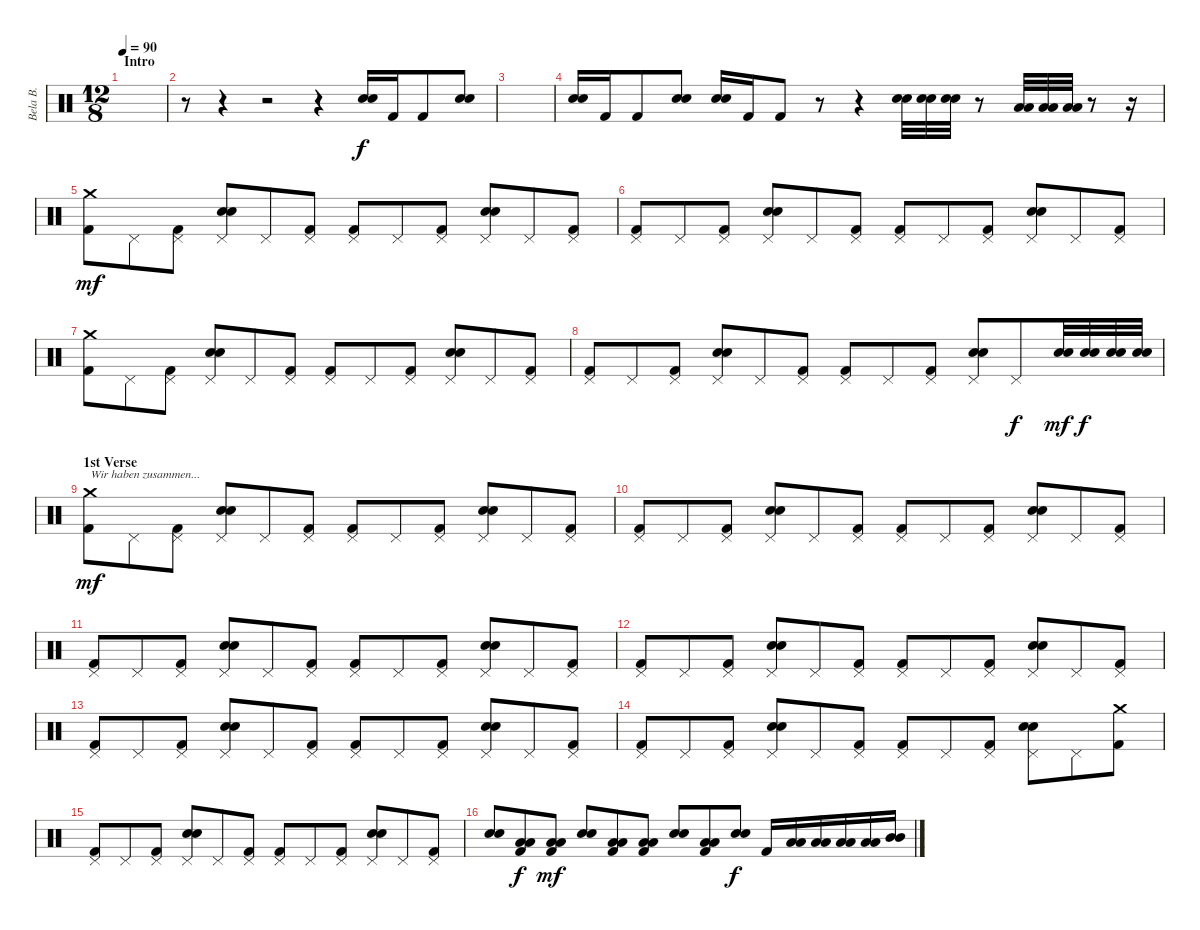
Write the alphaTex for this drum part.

\track ("Bela B." "Bela B.") {instrument percussion}
\staff {score}
\articulation defaults
\ts (12 8)
\section ("" "Intro")
\tempo 90
\clef neutral
\ks c
|
r.8 r.4 r.2 r.4 ("Electric Snare (hit)" "Snare (hit) 2").16 "Kick (hit) 2".16 "Kick (hit) 2".8 ("Electric Snare (hit)" "Snare (hit) 2").8 |
|
("Electric Snare (hit)" "Snare (hit) 2").16 "Kick (hit) 2".16 "Kick (hit) 2".8 ("Electric Snare (hit)" "Snare (hit) 2").8 ("Electric Snare (hit)" "Snare (hit) 2").16 "Kick (hit) 2".16 "Kick (hit) 2".8 r.8 r.4 ("Electric Snare (hit)" "Snare (hit) 2").32 ("Electric Snare (hit)" "Snare (hit) 2").32 ("Electric Snare (hit)" "Snare (hit) 2").32 r.8 ("Low Tom (hit)" "Low Tom (hit)").32 ("Low Tom (hit)" "Low Tom (hit)").32 ("Low Tom (hit)" "Low Tom (hit)").32 r.8 r.16 |
("Crash medium (hit)" "Kick (hit) 2").8{dy mf} "Pedal Hi-Hat (hit)".8 ("Pedal Hi-Hat (hit)" "Kick (hit) 2").8 ("Pedal Hi-Hat (hit)" "Electric Snare (hit)" "Snare (hit) 2").8 "Pedal Hi-Hat (hit)".8 ("Pedal Hi-Hat (hit)" "Kick (hit) 2").8 ("Pedal Hi-Hat (hit)" "Kick (hit) 2").8 "Pedal Hi-Hat (hit)".8 ("Pedal Hi-Hat (hit)" "Kick (hit) 2").8 ("Pedal Hi-Hat (hit)" "Electric Snare (hit)" "Snare (hit) 2").8 "Pedal Hi-Hat (hit)".8 ("Pedal Hi-Hat (hit)" "Kick (hit) 2").8 |
("Pedal Hi-Hat (hit)" "Kick (hit) 2").8 "Pedal Hi-Hat (hit)".8 ("Pedal Hi-Hat (hit)" "Kick (hit) 2").8 ("Pedal Hi-Hat (hit)" "Electric Snare (hit)" "Snare (hit) 2").8 "Pedal Hi-Hat (hit)".8 ("Pedal Hi-Hat (hit)" "Kick (hit) 2").8 ("Pedal Hi-Hat (hit)" "Kick (hit) 2").8 "Pedal Hi-Hat (hit)".8 ("Pedal Hi-Hat (hit)" "Kick (hit) 2").8 ("Pedal Hi-Hat (hit)" "Electric Snare (hit)" "Snare (hit) 2").8 "Pedal Hi-Hat (hit)".8 ("Pedal Hi-Hat (hit)" "Kick (hit) 2").8 |
("Crash medium (hit)" "Kick (hit) 2").8 "Pedal Hi-Hat (hit)".8 ("Pedal Hi-Hat (hit)" "Kick (hit) 2").8 ("Pedal Hi-Hat (hit)" "Electric Snare (hit)" "Snare (hit) 2").8 "Pedal Hi-Hat (hit)".8 ("Pedal Hi-Hat (hit)" "Kick (hit) 2").8 ("Pedal Hi-Hat (hit)" "Kick (hit) 2").8 "Pedal Hi-Hat (hit)".8 ("Pedal Hi-Hat (hit)" "Kick (hit) 2").8 ("Pedal Hi-Hat (hit)" "Electric Snare (hit)" "Snare (hit) 2").8 "Pedal Hi-Hat (hit)".8 ("Pedal Hi-Hat (hit)" "Kick (hit) 2").8 |
("Pedal Hi-Hat (hit)" "Kick (hit) 2").8 "Pedal Hi-Hat (hit)".8 ("Pedal Hi-Hat (hit)" "Kick (hit) 2").8 ("Pedal Hi-Hat (hit)" "Electric Snare (hit)" "Snare (hit) 2").8 "Pedal Hi-Hat (hit)".8 ("Pedal Hi-Hat (hit)" "Kick (hit) 2").8 ("Pedal Hi-Hat (hit)" "Kick (hit) 2").8 "Pedal Hi-Hat (hit)".8 ("Pedal Hi-Hat (hit)" "Kick (hit) 2").8 ("Pedal Hi-Hat (hit)" "Electric Snare (hit)" "Snare (hit) 2").8 "Pedal Hi-Hat (hit)".8{dy f} ("Electric Snare (hit)" "Snare (hit) 2").32{dy mf} ("Electric Snare (hit)" "Snare (hit) 2").32{dy f} ("Electric Snare (hit)" "Snare (hit) 2").32 ("Electric Snare (hit)" "Snare (hit) 2").32 |
\section ("" "1st Verse")
("Crash medium (hit)" "Kick (hit) 2").8{txt "Wir haben zusammen..." dy mf} "Pedal Hi-Hat (hit)".8 ("Pedal Hi-Hat (hit)" "Kick (hit) 2").8 ("Pedal Hi-Hat (hit)" "Electric Snare (hit)" "Snare (hit) 2").8 "Pedal Hi-Hat (hit)".8 ("Pedal Hi-Hat (hit)" "Kick (hit) 2").8 ("Pedal Hi-Hat (hit)" "Kick (hit) 2").8 "Pedal Hi-Hat (hit)".8 ("Pedal Hi-Hat (hit)" "Kick (hit) 2").8 ("Pedal Hi-Hat (hit)" "Electric Snare (hit)" "Snare (hit) 2").8 "Pedal Hi-Hat (hit)".8 ("Pedal Hi-Hat (hit)" "Kick (hit) 2").8 |
("Pedal Hi-Hat (hit)" "Kick (hit) 2").8 "Pedal Hi-Hat (hit)".8 ("Pedal Hi-Hat (hit)" "Kick (hit) 2").8 ("Pedal Hi-Hat (hit)" "Electric Snare (hit)" "Snare (hit) 2").8 "Pedal Hi-Hat (hit)".8 ("Pedal Hi-Hat (hit)" "Kick (hit) 2").8 ("Pedal Hi-Hat (hit)" "Kick (hit) 2").8 "Pedal Hi-Hat (hit)".8 ("Pedal Hi-Hat (hit)" "Kick (hit) 2").8 ("Pedal Hi-Hat (hit)" "Electric Snare (hit)" "Snare (hit) 2").8 "Pedal Hi-Hat (hit)".8 ("Pedal Hi-Hat (hit)" "Kick (hit) 2").8 |
("Pedal Hi-Hat (hit)" "Kick (hit) 2").8 "Pedal Hi-Hat (hit)".8 ("Pedal Hi-Hat (hit)" "Kick (hit) 2").8 ("Pedal Hi-Hat (hit)" "Electric Snare (hit)" "Snare (hit) 2").8 "Pedal Hi-Hat (hit)".8 ("Pedal Hi-Hat (hit)" "Kick (hit) 2").8 ("Pedal Hi-Hat (hit)" "Kick (hit) 2").8 "Pedal Hi-Hat (hit)".8 ("Pedal Hi-Hat (hit)" "Kick (hit) 2").8 ("Pedal Hi-Hat (hit)" "Electric Snare (hit)" "Snare (hit) 2").8 "Pedal Hi-Hat (hit)".8 ("Pedal Hi-Hat (hit)" "Kick (hit) 2").8 |
("Pedal Hi-Hat (hit)" "Kick (hit) 2").8 "Pedal Hi-Hat (hit)".8 ("Pedal Hi-Hat (hit)" "Kick (hit) 2").8 ("Pedal Hi-Hat (hit)" "Electric Snare (hit)" "Snare (hit) 2").8 "Pedal Hi-Hat (hit)".8 ("Pedal Hi-Hat (hit)" "Kick (hit) 2").8 ("Pedal Hi-Hat (hit)" "Kick (hit) 2").8 "Pedal Hi-Hat (hit)".8 ("Pedal Hi-Hat (hit)" "Kick (hit) 2").8 ("Pedal Hi-Hat (hit)" "Electric Snare (hit)" "Snare (hit) 2").8 "Pedal Hi-Hat (hit)".8 ("Pedal Hi-Hat (hit)" "Kick (hit) 2").8 |
("Pedal Hi-Hat (hit)" "Kick (hit) 2").8 "Pedal Hi-Hat (hit)".8 ("Pedal Hi-Hat (hit)" "Kick (hit) 2").8 ("Pedal Hi-Hat (hit)" "Electric Snare (hit)" "Snare (hit) 2").8 "Pedal Hi-Hat (hit)".8 ("Pedal Hi-Hat (hit)" "Kick (hit) 2").8 ("Pedal Hi-Hat (hit)" "Kick (hit) 2").8 "Pedal Hi-Hat (hit)".8 ("Pedal Hi-Hat (hit)" "Kick (hit) 2").8 ("Pedal Hi-Hat (hit)" "Electric Snare (hit)" "Snare (hit) 2").8 "Pedal Hi-Hat (hit)".8 ("Pedal Hi-Hat (hit)" "Kick (hit) 2").8 |
("Pedal Hi-Hat (hit)" "Kick (hit) 2").8 "Pedal Hi-Hat (hit)".8 ("Pedal Hi-Hat (hit)" "Kick (hit) 2").8 ("Pedal Hi-Hat (hit)" "Electric Snare (hit)" "Snare (hit) 2").8 "Pedal Hi-Hat (hit)".8 ("Pedal Hi-Hat (hit)" "Kick (hit) 2").8 ("Pedal Hi-Hat (hit)" "Kick (hit) 2").8 "Pedal Hi-Hat (hit)".8 ("Pedal Hi-Hat (hit)" "Kick (hit) 2").8 ("Pedal Hi-Hat (hit)" "Electric Snare (hit)" "Snare (hit) 2").8 "Pedal Hi-Hat (hit)".8 ("Crash medium (hit)" "Kick (hit) 2").8 |
("Pedal Hi-Hat (hit)" "Kick (hit) 2").8 "Pedal Hi-Hat (hit)".8 ("Pedal Hi-Hat (hit)" "Kick (hit) 2").8 ("Pedal Hi-Hat (hit)" "Electric Snare (hit)" "Snare (hit) 2").8 "Pedal Hi-Hat (hit)".8 ("Pedal Hi-Hat (hit)" "Kick (hit) 2").8 ("Pedal Hi-Hat (hit)" "Kick (hit) 2").8 "Pedal Hi-Hat (hit)".8 ("Pedal Hi-Hat (hit)" "Kick (hit) 2").8 ("Pedal Hi-Hat (hit)" "Electric Snare (hit)" "Snare (hit) 2").8 "Pedal Hi-Hat (hit)".8 ("Pedal Hi-Hat (hit)" "Kick (hit) 2").8 |
("Electric Snare (hit)" "Snare (hit) 2").8 ("Low Tom (hit)" "Low Tom (hit)" "Kick (hit) 2").8{dy f} ("Low Tom (hit)" "Low Tom (hit)" "Kick (hit) 2").8{dy mf} ("Electric Snare (hit)" "Snare (hit) 2").8 ("Low Tom (hit)" "Low Tom (hit)" "Kick (hit) 2").8 ("Low Tom (hit)" "Low Tom (hit)" "Kick (hit) 2").8 ("Electric Snare (hit)" "Snare (hit) 2").8 ("Low Tom (hit)" "Low Tom (hit)" "Kick (hit) 2").8 ("Electric Snare (hit)" "Snare (hit) 2").8{dy f} "Kick (hit) 2".16 ("Low Floor Tom (hit)" "Low Floor Tom (hit)").16 ("Low Floor Tom (hit)" "Low Floor Tom (hit)").16 ("Low Floor Tom (hit)" "Low Floor Tom (hit)").16 ("Low Tom (hit)" "Low Tom (hit)").16 ("Mid Tom (hit)" "Mid Tom (hit)").16
